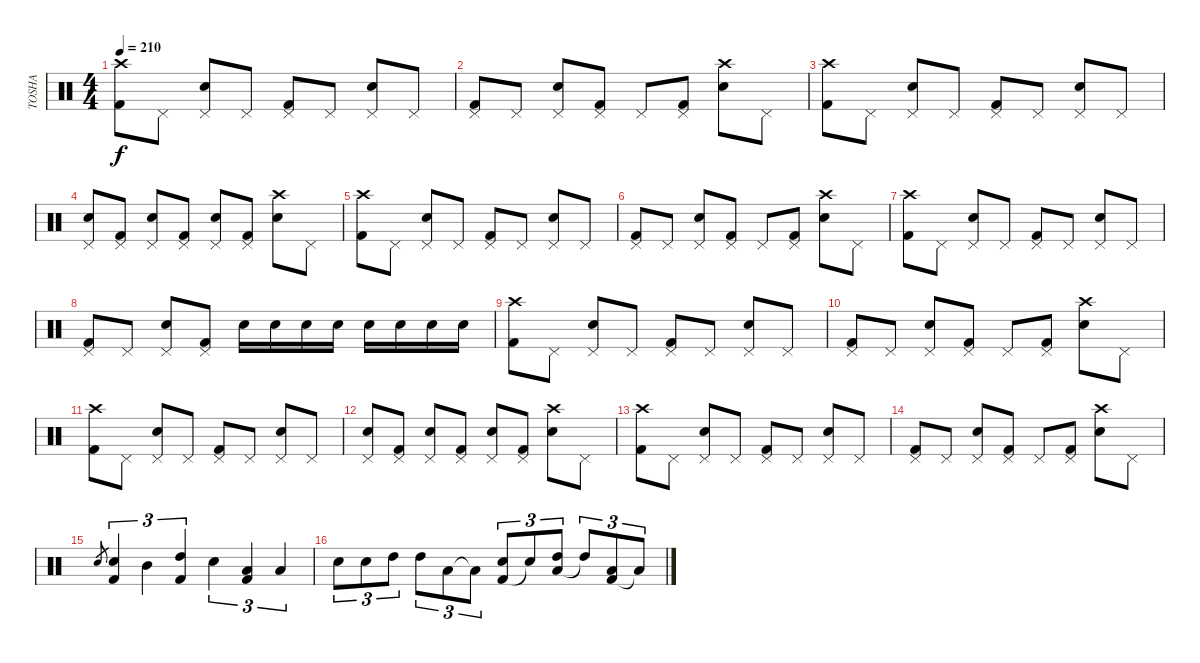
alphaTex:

\track ("TOSHA" "TOSHA") {instrument percussion}
\staff {score}
\articulation defaults
\ts (4 4)
\tempo 210
\clef neutral
\ks c
("Kick (hit) 2" "Crash high (hit)").8{dy f} "Pedal Hi-Hat (hit)".8 ("Electric Snare (hit)" "Pedal Hi-Hat (hit)").8 "Pedal Hi-Hat (hit)".8 ("Kick (hit) 2" "Pedal Hi-Hat (hit)").8 "Pedal Hi-Hat (hit)".8 ("Electric Snare (hit)" "Pedal Hi-Hat (hit)").8 "Pedal Hi-Hat (hit)".8 |
("Kick (hit) 2" "Pedal Hi-Hat (hit)").8 "Pedal Hi-Hat (hit)".8 ("Electric Snare (hit)" "Pedal Hi-Hat (hit)").8 ("Kick (hit) 2" "Pedal Hi-Hat (hit)").8 "Pedal Hi-Hat (hit)".8 ("Kick (hit) 2" "Pedal Hi-Hat (hit)").8 ("Electric Snare (hit)" "Crash high (hit)").8 "Pedal Hi-Hat (hit)".8 |
("Kick (hit) 2" "Crash high (hit)").8 "Pedal Hi-Hat (hit)".8 ("Electric Snare (hit)" "Pedal Hi-Hat (hit)").8 "Pedal Hi-Hat (hit)".8 ("Kick (hit) 2" "Pedal Hi-Hat (hit)").8 "Pedal Hi-Hat (hit)".8 ("Electric Snare (hit)" "Pedal Hi-Hat (hit)").8 "Pedal Hi-Hat (hit)".8 |
("Electric Snare (hit)" "Pedal Hi-Hat (hit)").8 ("Kick (hit) 2" "Pedal Hi-Hat (hit)").8 ("Electric Snare (hit)" "Pedal Hi-Hat (hit)").8 ("Kick (hit) 2" "Pedal Hi-Hat (hit)").8 ("Electric Snare (hit)" "Pedal Hi-Hat (hit)").8 ("Kick (hit) 2" "Pedal Hi-Hat (hit)").8 ("Electric Snare (hit)" "Crash high (hit)").8 "Pedal Hi-Hat (hit)".8 |
("Kick (hit) 2" "Crash high (hit)").8 "Pedal Hi-Hat (hit)".8 ("Electric Snare (hit)" "Pedal Hi-Hat (hit)").8 "Pedal Hi-Hat (hit)".8 ("Kick (hit) 2" "Pedal Hi-Hat (hit)").8 "Pedal Hi-Hat (hit)".8 ("Electric Snare (hit)" "Pedal Hi-Hat (hit)").8 "Pedal Hi-Hat (hit)".8 |
("Kick (hit) 2" "Pedal Hi-Hat (hit)").8 "Pedal Hi-Hat (hit)".8 ("Electric Snare (hit)" "Pedal Hi-Hat (hit)").8 ("Kick (hit) 2" "Pedal Hi-Hat (hit)").8 "Pedal Hi-Hat (hit)".8 ("Kick (hit) 2" "Pedal Hi-Hat (hit)").8 ("Electric Snare (hit)" "Crash high (hit)").8 "Pedal Hi-Hat (hit)".8 |
("Kick (hit) 2" "Crash high (hit)").8 "Pedal Hi-Hat (hit)".8 ("Electric Snare (hit)" "Pedal Hi-Hat (hit)").8 "Pedal Hi-Hat (hit)".8 ("Kick (hit) 2" "Pedal Hi-Hat (hit)").8 "Pedal Hi-Hat (hit)".8 ("Electric Snare (hit)" "Pedal Hi-Hat (hit)").8 "Pedal Hi-Hat (hit)".8 |
("Kick (hit) 2" "Pedal Hi-Hat (hit)").8 "Pedal Hi-Hat (hit)".8 ("Electric Snare (hit)" "Pedal Hi-Hat (hit)").8 ("Kick (hit) 2" "Pedal Hi-Hat (hit)").8 "Electric Snare (hit)".16 "Electric Snare (hit)".16 "Electric Snare (hit)".16 "Electric Snare (hit)".16 "Electric Snare (hit)".16 "Electric Snare (hit)".16 "Electric Snare (hit)".16 "Electric Snare (hit)".16 |
("Kick (hit) 2" "Crash high (hit)").8 "Pedal Hi-Hat (hit)".8 ("Electric Snare (hit)" "Pedal Hi-Hat (hit)").8 "Pedal Hi-Hat (hit)".8 ("Kick (hit) 2" "Pedal Hi-Hat (hit)").8 "Pedal Hi-Hat (hit)".8 ("Electric Snare (hit)" "Pedal Hi-Hat (hit)").8 "Pedal Hi-Hat (hit)".8 |
("Kick (hit) 2" "Pedal Hi-Hat (hit)").8 "Pedal Hi-Hat (hit)".8 ("Electric Snare (hit)" "Pedal Hi-Hat (hit)").8 ("Kick (hit) 2" "Pedal Hi-Hat (hit)").8 "Pedal Hi-Hat (hit)".8 ("Kick (hit) 2" "Pedal Hi-Hat (hit)").8 ("Electric Snare (hit)" "Crash high (hit)").8 "Pedal Hi-Hat (hit)".8 |
("Kick (hit) 2" "Crash high (hit)").8 "Pedal Hi-Hat (hit)".8 ("Electric Snare (hit)" "Pedal Hi-Hat (hit)").8 "Pedal Hi-Hat (hit)".8 ("Kick (hit) 2" "Pedal Hi-Hat (hit)").8 "Pedal Hi-Hat (hit)".8 ("Electric Snare (hit)" "Pedal Hi-Hat (hit)").8 "Pedal Hi-Hat (hit)".8 |
("Electric Snare (hit)" "Pedal Hi-Hat (hit)").8 ("Kick (hit) 2" "Pedal Hi-Hat (hit)").8 ("Electric Snare (hit)" "Pedal Hi-Hat (hit)").8 ("Kick (hit) 2" "Pedal Hi-Hat (hit)").8 ("Electric Snare (hit)" "Pedal Hi-Hat (hit)").8 ("Kick (hit) 2" "Pedal Hi-Hat (hit)").8 ("Electric Snare (hit)" "Crash high (hit)").8 "Pedal Hi-Hat (hit)".8 |
("Kick (hit) 2" "Crash high (hit)").8 "Pedal Hi-Hat (hit)".8 ("Electric Snare (hit)" "Pedal Hi-Hat (hit)").8 "Pedal Hi-Hat (hit)".8 ("Kick (hit) 2" "Pedal Hi-Hat (hit)").8 "Pedal Hi-Hat (hit)".8 ("Electric Snare (hit)" "Pedal Hi-Hat (hit)").8 "Pedal Hi-Hat (hit)".8 |
("Kick (hit) 2" "Pedal Hi-Hat (hit)").8 "Pedal Hi-Hat (hit)".8 ("Electric Snare (hit)" "Pedal Hi-Hat (hit)").8 ("Kick (hit) 2" "Pedal Hi-Hat (hit)").8 "Pedal Hi-Hat (hit)".8 ("Kick (hit) 2" "Pedal Hi-Hat (hit)").8 ("Electric Snare (hit)" "Crash high (hit)").8 "Pedal Hi-Hat (hit)".8 |
"Electric Snare (hit)".8{gr} ("Kick (hit) 2" "Electric Snare (hit)").4{tu (3 2)} "Mid Tom (hit)".4{tu (3 2)} ("Kick (hit) 2" "High Tom (hit)").4{tu (3 2)} "Electric Snare (hit)".4{tu (3 2)} ("Kick (hit) 2" "Low Tom (hit)").4{tu (3 2)} "Low Tom (hit)".4{tu (3 2)} |
"Electric Snare (hit)".8{tu (3 2)} "Electric Snare (hit)".8{tu (3 2)} "High Tom (hit)".8{tu (3 2)} "High Tom (hit)".8{tu (3 2)} "Low Tom (hit)".8{tu (3 2)} "Low Tom (hit)"{t}.8{tu (3 2)} ("Kick (hit) 2" "Electric Snare (hit)").8{tu (3 2)} "Electric Snare (hit)"{t}.8{tu (3 2)} ("Low Tom (hit)" "High Tom (hit)").8{tu (3 2)} "High Tom (hit)"{t}.8{tu (3 2)} ("Kick (hit) 2" "Low Tom (hit)").8{tu (3 2)} "Low Tom (hit)"{t}.8{tu (3 2)}
